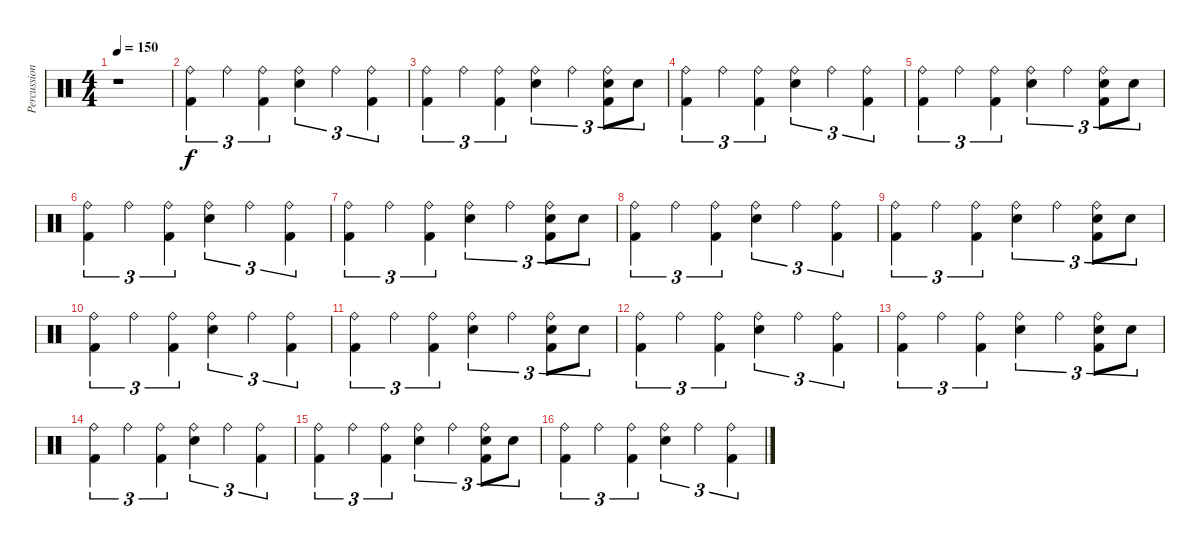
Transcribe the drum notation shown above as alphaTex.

\track ("Percussion" "Percussion") {instrument percussion}
\staff {score}
\articulation defaults
\ts (4 4)
\tempo 150
\clef neutral
\ks c
r.1{dy f} |
("Ride (bell)" "Kick (hit) 2").4{tu (3 2)} "Ride (bell)".4{tu (3 2)} ("Ride (bell)" "Kick (hit) 2").4{tu (3 2)} ("Ride (bell)" "Snare (hit) 2").4{tu (3 2)} "Ride (bell)".4{tu (3 2)} ("Ride (bell)" "Kick (hit) 2").4{tu (3 2)} |
("Ride (bell)" "Kick (hit) 2").4{tu (3 2)} "Ride (bell)".4{tu (3 2)} ("Ride (bell)" "Kick (hit) 2").4{tu (3 2)} ("Ride (bell)" "Snare (hit) 2").4{tu (3 2)} "Ride (bell)".4{tu (3 2)} ("Ride (bell)" "Snare (hit) 2" "Kick (hit) 2").8{tu (3 2)} "Snare (hit) 2".8{tu (3 2)} |
("Ride (bell)" "Kick (hit) 2").4{tu (3 2)} "Ride (bell)".4{tu (3 2)} ("Ride (bell)" "Kick (hit) 2").4{tu (3 2)} ("Ride (bell)" "Snare (hit) 2").4{tu (3 2)} "Ride (bell)".4{tu (3 2)} ("Ride (bell)" "Kick (hit) 2").4{tu (3 2)} |
("Ride (bell)" "Kick (hit) 2").4{tu (3 2)} "Ride (bell)".4{tu (3 2)} ("Ride (bell)" "Kick (hit) 2").4{tu (3 2)} ("Ride (bell)" "Snare (hit) 2").4{tu (3 2)} "Ride (bell)".4{tu (3 2)} ("Ride (bell)" "Snare (hit) 2" "Kick (hit) 2").8{tu (3 2)} "Snare (hit) 2".8{tu (3 2)} |
("Ride (bell)" "Kick (hit) 2").4{tu (3 2)} "Ride (bell)".4{tu (3 2)} ("Ride (bell)" "Kick (hit) 2").4{tu (3 2)} ("Ride (bell)" "Snare (hit) 2").4{tu (3 2)} "Ride (bell)".4{tu (3 2)} ("Ride (bell)" "Kick (hit) 2").4{tu (3 2)} |
("Ride (bell)" "Kick (hit) 2").4{tu (3 2)} "Ride (bell)".4{tu (3 2)} ("Ride (bell)" "Kick (hit) 2").4{tu (3 2)} ("Ride (bell)" "Snare (hit) 2").4{tu (3 2)} "Ride (bell)".4{tu (3 2)} ("Ride (bell)" "Snare (hit) 2" "Kick (hit) 2").8{tu (3 2)} "Snare (hit) 2".8{tu (3 2)} |
("Ride (bell)" "Kick (hit) 2").4{tu (3 2)} "Ride (bell)".4{tu (3 2)} ("Ride (bell)" "Kick (hit) 2").4{tu (3 2)} ("Ride (bell)" "Snare (hit) 2").4{tu (3 2)} "Ride (bell)".4{tu (3 2)} ("Ride (bell)" "Kick (hit) 2").4{tu (3 2)} |
("Ride (bell)" "Kick (hit) 2").4{tu (3 2)} "Ride (bell)".4{tu (3 2)} ("Ride (bell)" "Kick (hit) 2").4{tu (3 2)} ("Ride (bell)" "Snare (hit) 2").4{tu (3 2)} "Ride (bell)".4{tu (3 2)} ("Ride (bell)" "Snare (hit) 2" "Kick (hit) 2").8{tu (3 2)} "Snare (hit) 2".8{tu (3 2)} |
("Ride (bell)" "Kick (hit) 2").4{tu (3 2)} "Ride (bell)".4{tu (3 2)} ("Ride (bell)" "Kick (hit) 2").4{tu (3 2)} ("Ride (bell)" "Snare (hit) 2").4{tu (3 2)} "Ride (bell)".4{tu (3 2)} ("Ride (bell)" "Kick (hit) 2").4{tu (3 2)} |
("Ride (bell)" "Kick (hit) 2").4{tu (3 2)} "Ride (bell)".4{tu (3 2)} ("Ride (bell)" "Kick (hit) 2").4{tu (3 2)} ("Ride (bell)" "Snare (hit) 2").4{tu (3 2)} "Ride (bell)".4{tu (3 2)} ("Ride (bell)" "Snare (hit) 2" "Kick (hit) 2").8{tu (3 2)} "Snare (hit) 2".8{tu (3 2)} |
("Ride (bell)" "Kick (hit) 2").4{tu (3 2)} "Ride (bell)".4{tu (3 2)} ("Ride (bell)" "Kick (hit) 2").4{tu (3 2)} ("Ride (bell)" "Snare (hit) 2").4{tu (3 2)} "Ride (bell)".4{tu (3 2)} ("Ride (bell)" "Kick (hit) 2").4{tu (3 2)} |
("Ride (bell)" "Kick (hit) 2").4{tu (3 2)} "Ride (bell)".4{tu (3 2)} ("Ride (bell)" "Kick (hit) 2").4{tu (3 2)} ("Ride (bell)" "Snare (hit) 2").4{tu (3 2)} "Ride (bell)".4{tu (3 2)} ("Ride (bell)" "Snare (hit) 2" "Kick (hit) 2").8{tu (3 2)} "Snare (hit) 2".8{tu (3 2)} |
("Ride (bell)" "Kick (hit) 2").4{tu (3 2)} "Ride (bell)".4{tu (3 2)} ("Ride (bell)" "Kick (hit) 2").4{tu (3 2)} ("Ride (bell)" "Snare (hit) 2").4{tu (3 2)} "Ride (bell)".4{tu (3 2)} ("Ride (bell)" "Kick (hit) 2").4{tu (3 2)} |
("Ride (bell)" "Kick (hit) 2").4{tu (3 2)} "Ride (bell)".4{tu (3 2)} ("Ride (bell)" "Kick (hit) 2").4{tu (3 2)} ("Ride (bell)" "Snare (hit) 2").4{tu (3 2)} "Ride (bell)".4{tu (3 2)} ("Ride (bell)" "Snare (hit) 2" "Kick (hit) 2").8{tu (3 2)} "Snare (hit) 2".8{tu (3 2)} |
("Ride (bell)" "Kick (hit) 2").4{tu (3 2)} "Ride (bell)".4{tu (3 2)} ("Ride (bell)" "Kick (hit) 2").4{tu (3 2)} ("Ride (bell)" "Snare (hit) 2").4{tu (3 2)} "Ride (bell)".4{tu (3 2)} ("Ride (bell)" "Kick (hit) 2").4{tu (3 2)}
